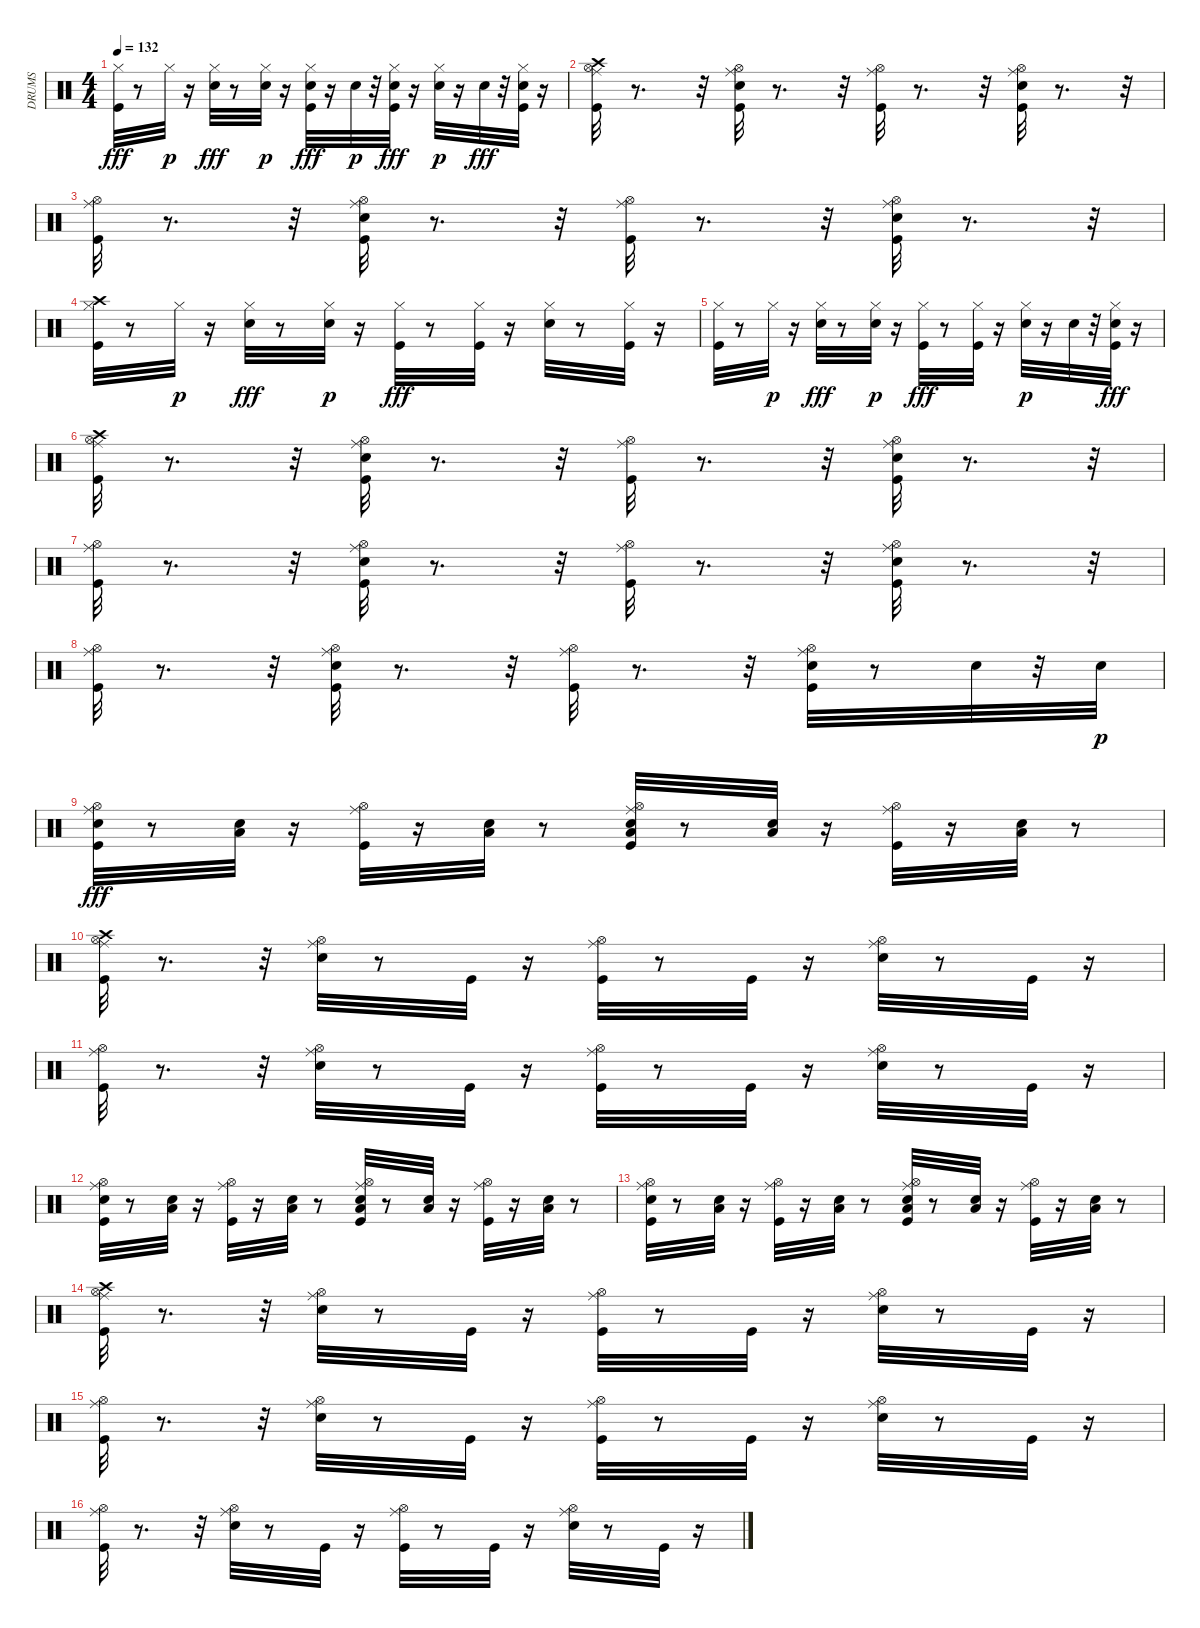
\track ("DRUMS" "DRUMS") {instrument percussion}
\staff {score}
\articulation defaults
\ts (4 4)
\tempo 132
\clef neutral
\ks c
("Hi-Hat (closed)" "Kick (hit)").32{dy fff} r.8 "Hi-Hat (closed)".32{dy p} r.16 ("Hi-Hat (closed)" "Snare (hit) 2").32{dy fff} r.8 ("Hi-Hat (closed)" "Snare (hit) 2").32{dy p} r.16 ("Hi-Hat (closed)" "Snare (hit) 2" "Kick (hit)").32{dy fff} r.16 "Snare (hit) 2".32{dy p} r.32 ("Hi-Hat (closed)" "Snare (hit) 2" "Kick (hit)").32{dy fff} r.16 ("Hi-Hat (closed)" "Snare (hit) 2").32{dy p} r.16 "Snare (hit) 2".32{dy fff} r.32 ("Hi-Hat (closed)" "Snare (hit) 2" "Kick (hit)").32 r.16 |
("Kick (hit)" "Crash high (hit)" "Ride (middle)" "Hi-Hat (open)").32 r.8{d} r.32 ("Snare (hit) 2" "Kick (hit)" "Ride (middle)" "Hi-Hat (open)").32 r.8{d} r.32 ("Kick (hit)" "Ride (middle)" "Hi-Hat (open)").32 r.8{d} r.32 ("Snare (hit) 2" "Kick (hit)" "Ride (middle)" "Hi-Hat (open)").32 r.8{d} r.32 |
("Kick (hit)" "Ride (middle)" "Hi-Hat (open)").32 r.8{d} r.32 ("Snare (hit) 2" "Kick (hit)" "Ride (middle)" "Hi-Hat (open)").32 r.8{d} r.32 ("Kick (hit)" "Ride (middle)" "Hi-Hat (open)").32 r.8{d} r.32 ("Snare (hit) 2" "Kick (hit)" "Ride (middle)" "Hi-Hat (open)").32 r.8{d} r.32 |
("Hi-Hat (closed)" "Kick (hit)" "Crash high (hit)").32 r.8 "Hi-Hat (closed)".32{dy p} r.16 ("Hi-Hat (closed)" "Snare (hit) 2").32{dy fff} r.8 ("Hi-Hat (closed)" "Snare (hit) 2").32{dy p} r.16 ("Hi-Hat (closed)" "Kick (hit)").32{dy fff} r.8 ("Hi-Hat (closed)" "Kick (hit)").32 r.16 ("Hi-Hat (closed)" "Snare (hit) 2").32 r.8 ("Hi-Hat (closed)" "Kick (hit)").32 r.16 |
("Hi-Hat (closed)" "Kick (hit)").32 r.8 "Hi-Hat (closed)".32{dy p} r.16 ("Hi-Hat (closed)" "Snare (hit) 2").32{dy fff} r.8 ("Hi-Hat (closed)" "Snare (hit) 2").32{dy p} r.16 ("Hi-Hat (closed)" "Kick (hit)").32{dy fff} r.8 ("Hi-Hat (closed)" "Kick (hit)").32 r.16 ("Hi-Hat (closed)" "Snare (hit) 2").32{dy p} r.16 "Snare (hit) 2".32 r.32 ("Hi-Hat (closed)" "Snare (hit) 2" "Kick (hit)").32{dy fff} r.16 |
("Kick (hit)" "Crash high (hit)" "Ride (middle)" "Hi-Hat (open)").32 r.8{d} r.32 ("Snare (hit) 2" "Kick (hit)" "Ride (middle)" "Hi-Hat (open)").32 r.8{d} r.32 ("Kick (hit)" "Ride (middle)" "Hi-Hat (open)").32 r.8{d} r.32 ("Snare (hit) 2" "Kick (hit)" "Ride (middle)" "Hi-Hat (open)").32 r.8{d} r.32 |
("Kick (hit)" "Ride (middle)" "Hi-Hat (open)").32 r.8{d} r.32 ("Snare (hit) 2" "Kick (hit)" "Ride (middle)" "Hi-Hat (open)").32 r.8{d} r.32 ("Kick (hit)" "Ride (middle)" "Hi-Hat (open)").32 r.8{d} r.32 ("Snare (hit) 2" "Kick (hit)" "Ride (middle)" "Hi-Hat (open)").32 r.8{d} r.32 |
("Kick (hit)" "Ride (middle)" "Hi-Hat (open)").32 r.8{d} r.32 ("Snare (hit) 2" "Kick (hit)" "Ride (middle)" "Hi-Hat (open)").32 r.8{d} r.32 ("Kick (hit)" "Ride (middle)" "Hi-Hat (open)").32 r.8{d} r.32 ("Snare (hit) 2" "Kick (hit)" "Ride (middle)" "Hi-Hat (open)").32 r.8 "Snare (hit) 2".32 r.32 "Snare (hit) 2".32{dy p} |
("Snare (hit) 2" "Kick (hit)" "Ride (middle)" "Hi-Hat (open)").32{dy fff} r.8 ("Snare (hit) 2" "Low Tom (hit)").32 r.16 ("Kick (hit)" "Ride (middle)" "Hi-Hat (open)").32 r.16 ("Snare (hit) 2" "Low Tom (hit)").32 r.8 ("Snare (hit) 2" "Low Tom (hit)" "Kick (hit)" "Ride (middle)" "Hi-Hat (open)").32 r.8 ("Snare (hit) 2" "Low Tom (hit)").32 r.16 ("Kick (hit)" "Ride (middle)" "Hi-Hat (open)").32 r.16 ("Snare (hit) 2" "Low Tom (hit)").32 r.8 |
("Kick (hit)" "Crash high (hit)" "Ride (middle)" "Hi-Hat (open)").32 r.8{d} r.32 ("Snare (hit) 2" "Ride (middle)" "Hi-Hat (open)").32 r.8 "Kick (hit)".32 r.16 ("Kick (hit)" "Ride (middle)" "Hi-Hat (open)").32 r.8 "Kick (hit)".32 r.16 ("Snare (hit) 2" "Ride (middle)" "Hi-Hat (open)").32 r.8 "Kick (hit)".32 r.16 |
("Kick (hit)" "Ride (middle)" "Hi-Hat (open)").32 r.8{d} r.32 ("Snare (hit) 2" "Ride (middle)" "Hi-Hat (open)").32 r.8 "Kick (hit)".32 r.16 ("Kick (hit)" "Ride (middle)" "Hi-Hat (open)").32 r.8 "Kick (hit)".32 r.16 ("Snare (hit) 2" "Ride (middle)" "Hi-Hat (open)").32 r.8 "Kick (hit)".32 r.16 |
("Snare (hit) 2" "Kick (hit)" "Ride (middle)" "Hi-Hat (open)").32 r.8 ("Snare (hit) 2" "Low Tom (hit)").32 r.16 ("Kick (hit)" "Ride (middle)" "Hi-Hat (open)").32 r.16 ("Snare (hit) 2" "Low Tom (hit)").32 r.8 ("Snare (hit) 2" "Low Tom (hit)" "Kick (hit)" "Ride (middle)" "Hi-Hat (open)").32 r.8 ("Snare (hit) 2" "Low Tom (hit)").32 r.16 ("Kick (hit)" "Ride (middle)" "Hi-Hat (open)").32 r.16 ("Snare (hit) 2" "Low Tom (hit)").32 r.8 |
("Snare (hit) 2" "Kick (hit)" "Ride (middle)" "Hi-Hat (open)").32 r.8 ("Snare (hit) 2" "Low Tom (hit)").32 r.16 ("Kick (hit)" "Ride (middle)" "Hi-Hat (open)").32 r.16 ("Snare (hit) 2" "Low Tom (hit)").32 r.8 ("Snare (hit) 2" "Low Tom (hit)" "Kick (hit)" "Ride (middle)" "Hi-Hat (open)").32 r.8 ("Snare (hit) 2" "Low Tom (hit)").32 r.16 ("Kick (hit)" "Ride (middle)" "Hi-Hat (open)").32 r.16 ("Snare (hit) 2" "Low Tom (hit)").32 r.8 |
("Kick (hit)" "Crash high (hit)" "Ride (middle)" "Hi-Hat (open)").32 r.8{d} r.32 ("Snare (hit) 2" "Ride (middle)" "Hi-Hat (open)").32 r.8 "Kick (hit)".32 r.16 ("Kick (hit)" "Ride (middle)" "Hi-Hat (open)").32 r.8 "Kick (hit)".32 r.16 ("Snare (hit) 2" "Ride (middle)" "Hi-Hat (open)").32 r.8 "Kick (hit)".32 r.16 |
("Kick (hit)" "Ride (middle)" "Hi-Hat (open)").32 r.8{d} r.32 ("Snare (hit) 2" "Ride (middle)" "Hi-Hat (open)").32 r.8 "Kick (hit)".32 r.16 ("Kick (hit)" "Ride (middle)" "Hi-Hat (open)").32 r.8 "Kick (hit)".32 r.16 ("Snare (hit) 2" "Ride (middle)" "Hi-Hat (open)").32 r.8 "Kick (hit)".32 r.16 |
("Kick (hit)" "Ride (middle)" "Hi-Hat (open)").32 r.8{d} r.32 ("Snare (hit) 2" "Ride (middle)" "Hi-Hat (open)").32 r.8 "Kick (hit)".32 r.16 ("Kick (hit)" "Ride (middle)" "Hi-Hat (open)").32 r.8 "Kick (hit)".32 r.16 ("Snare (hit) 2" "Ride (middle)" "Hi-Hat (open)").32 r.8 "Kick (hit)".32 r.16
